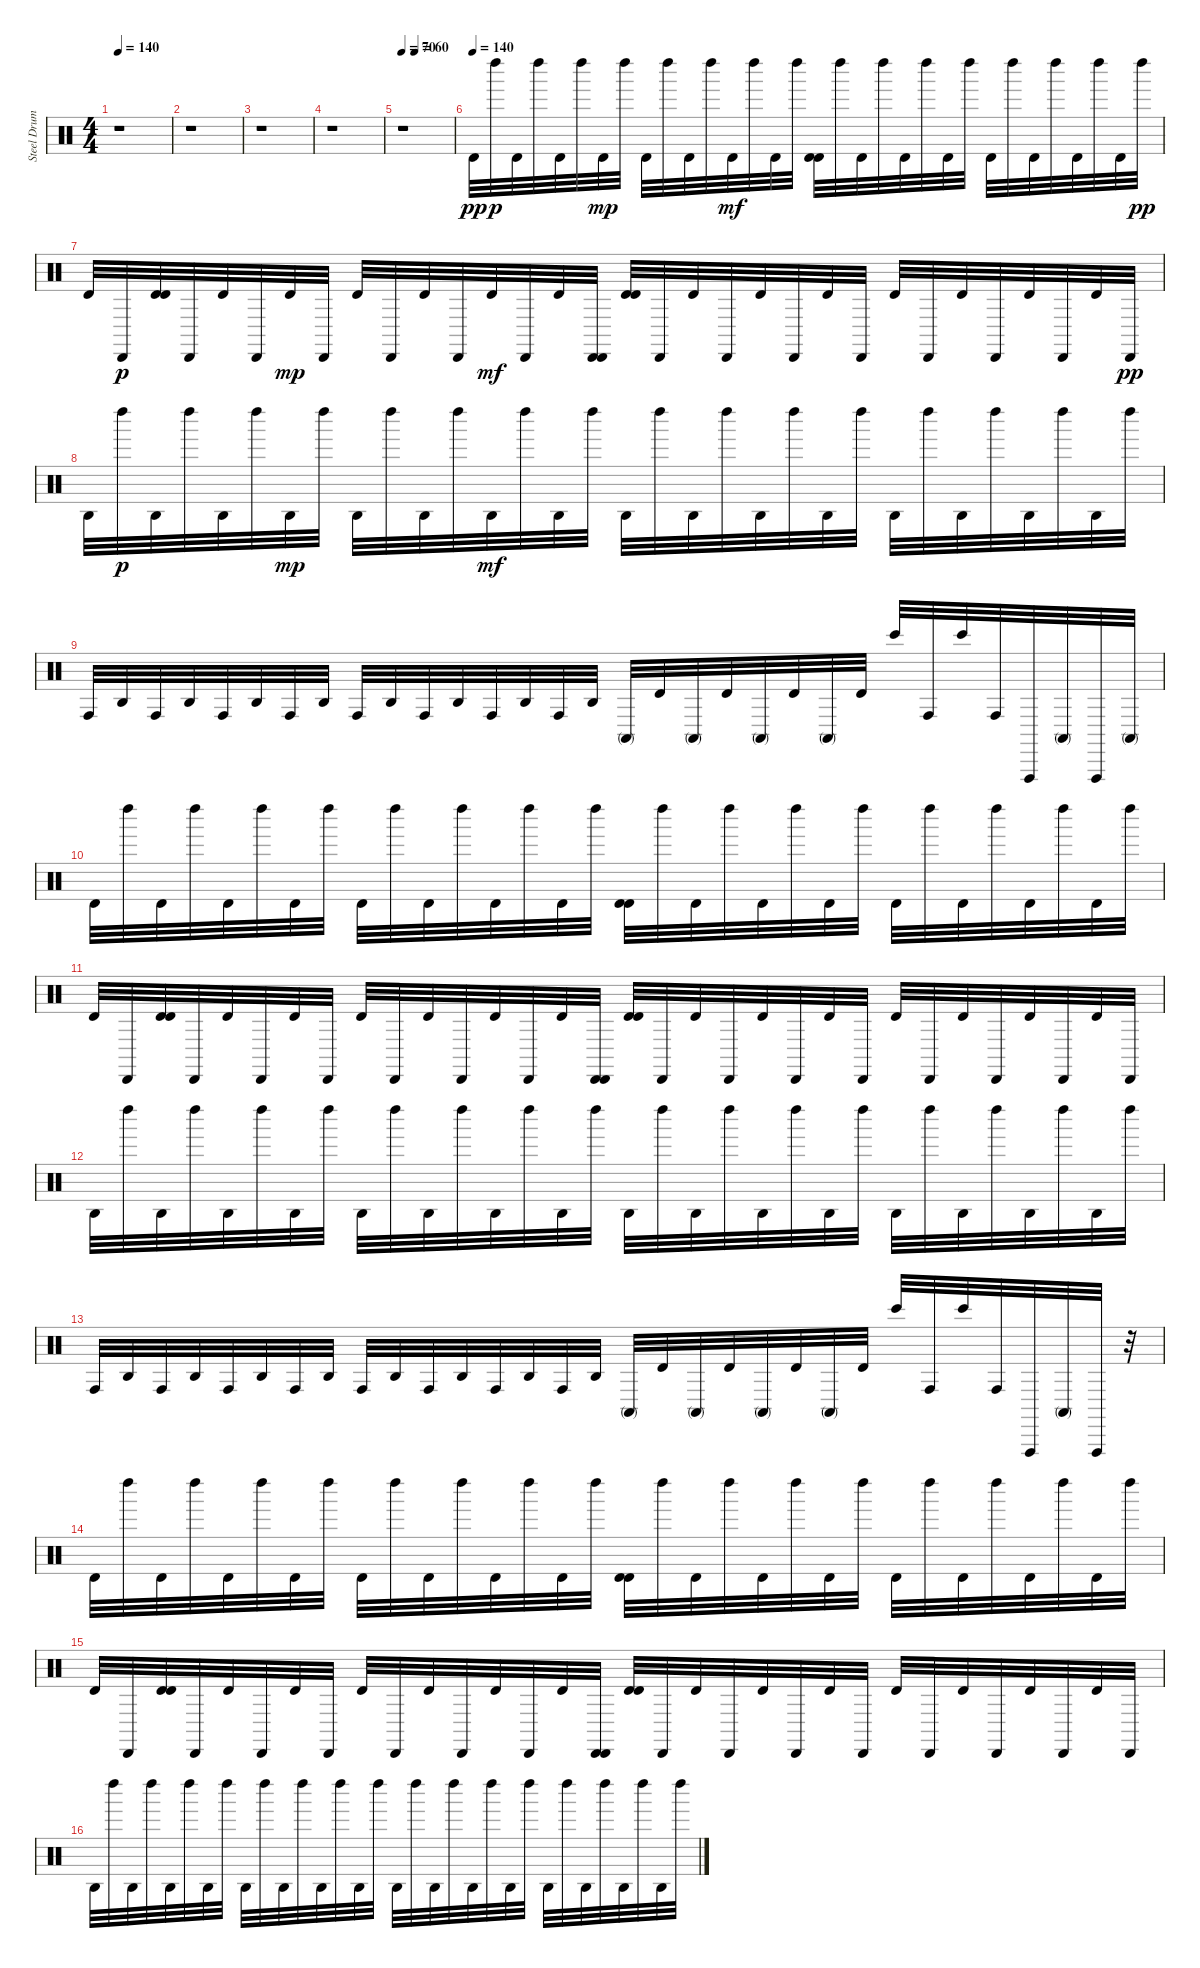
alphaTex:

\track ("Steel Drums" "Steel Drum") {instrument percussion}
\staff {score}
\articulation defaults
\ts (4 4)
\tempo 140
\clef neutral
\ks c
r.1{dy mf} |
r.1 |
r.1 |
r.1 |
\tempo 70
\tempo (60 0.25)
r.1 |
\tempo (140)
"Timbale high (hit)".32{dy pp} "Left Maraca (hit)".32{dy p} "Timbale high (hit)".32 "Left Maraca (hit)".32 "Timbale high (hit)".32 "Left Maraca (hit)".32 "Timbale high (hit)".32{dy mp} "Left Maraca (hit)".32 "Timbale high (hit)".32 "Left Maraca (hit)".32 "Timbale high (hit)".32 "Left Maraca (hit)".32 "Timbale high (hit)".32{dy mf} "Left Maraca (hit)".32 "Timbale high (hit)".32 "Left Maraca (hit)".32 ("Timbale high (hit)" "Timbale high (hit)").32 "Left Maraca (hit)".32 "Timbale high (hit)".32 "Left Maraca (hit)".32 "Timbale high (hit)".32 "Left Maraca (hit)".32 "Timbale high (hit)".32 "Left Maraca (hit)".32 "Timbale high (hit)".32 "Left Maraca (hit)".32 "Timbale high (hit)".32 "Left Maraca (hit)".32 "Timbale high (hit)".32 "Left Maraca (hit)".32 "Timbale high (hit)".32 "Left Maraca (hit)".32{dy pp} |
"Timbale high (hit)".32 "Cabasa (hit)".32{dy p} ("Timbale high (hit)" "Timbale high (hit)").32 "Cabasa (hit)".32 "Timbale high (hit)".32 "Cabasa (hit)".32 "Timbale high (hit)".32{dy mp} "Cabasa (hit)".32 "Timbale high (hit)".32 "Cabasa (hit)".32 "Timbale high (hit)".32 "Cabasa (hit)".32 "Timbale high (hit)".32{dy mf} "Cabasa (hit)".32 "Timbale high (hit)".32 ("Cabasa (hit)" "Cabasa (hit)").32 ("Timbale high (hit)" "Timbale high (hit)").32 "Cabasa (hit)".32 "Timbale high (hit)".32 "Cabasa (hit)".32 "Timbale high (hit)".32 "Cabasa (hit)".32 "Timbale high (hit)".32 "Cabasa (hit)".32 "Timbale high (hit)".32 "Cabasa (hit)".32 "Timbale high (hit)".32 "Cabasa (hit)".32 "Timbale high (hit)".32 "Cabasa (hit)".32 "Timbale high (hit)".32 "Cabasa (hit)".32{dy pp} |
"Agogo high (hit)".32 "Left Maraca (hit)".32{dy p} "Agogo high (hit)".32 "Left Maraca (hit)".32 "Agogo high (hit)".32 "Left Maraca (hit)".32 "Agogo high (hit)".32{dy mp} "Left Maraca (hit)".32 "Agogo high (hit)".32 "Left Maraca (hit)".32 "Agogo high (hit)".32 "Left Maraca (hit)".32 "Agogo high (hit)".32{dy mf} "Left Maraca (hit)".32 "Agogo high (hit)".32 "Left Maraca (hit)".32 "Agogo high (hit)".32 "Left Maraca (hit)".32 "Agogo high (hit)".32 "Left Maraca (hit)".32 "Agogo high (hit)".32 "Left Maraca (hit)".32 "Agogo high (hit)".32 "Left Maraca (hit)".32 "Agogo high (hit)".32 "Left Maraca (hit)".32 "Agogo high (hit)".32 "Left Maraca (hit)".32 "Agogo high (hit)".32 "Left Maraca (hit)".32 "Agogo high (hit)".32 "Left Maraca (hit)".32 |
"Conga high (hit)".32 "Agogo high (hit)".32 "Conga high (hit)".32 "Agogo high (hit)".32 "Conga high (hit)".32 "Agogo high (hit)".32 "Conga high (hit)".32 "Agogo high (hit)".32 "Conga high (hit)".32 "Agogo high (hit)".32 "Conga high (hit)".32 "Agogo high (hit)".32 "Conga high (hit)".32 "Agogo high (hit)".32 "Conga high (hit)".32 "Agogo high (hit)".32 "Conga high (mute)".32 "Timbale high (hit)".32 "Conga high (mute)".32 "Timbale high (hit)".32 "Conga high (mute)".32 "Timbale high (hit)".32 "Conga high (mute)".32 "Timbale high (hit)".32 "Bongo High (hit)".32 "Conga high (hit)".32 "Bongo High (hit)".32 "Conga high (hit)".32 "Vibraslap (hit)".32 "Conga high (mute)".32 "Vibraslap (hit)".32 "Conga high (mute)".32 |
"Timbale high (hit)".32 "Left Maraca (hit)".32 "Timbale high (hit)".32 "Left Maraca (hit)".32 "Timbale high (hit)".32 "Left Maraca (hit)".32 "Timbale high (hit)".32 "Left Maraca (hit)".32 "Timbale high (hit)".32 "Left Maraca (hit)".32 "Timbale high (hit)".32 "Left Maraca (hit)".32 "Timbale high (hit)".32 "Left Maraca (hit)".32 "Timbale high (hit)".32 "Left Maraca (hit)".32 ("Timbale high (hit)" "Timbale high (hit)").32 "Left Maraca (hit)".32 "Timbale high (hit)".32 "Left Maraca (hit)".32 "Timbale high (hit)".32 "Left Maraca (hit)".32 "Timbale high (hit)".32 "Left Maraca (hit)".32 "Timbale high (hit)".32 "Left Maraca (hit)".32 "Timbale high (hit)".32 "Left Maraca (hit)".32 "Timbale high (hit)".32 "Left Maraca (hit)".32 "Timbale high (hit)".32 "Left Maraca (hit)".32 |
"Timbale high (hit)".32 "Cabasa (hit)".32 ("Timbale high (hit)" "Timbale high (hit)").32 "Cabasa (hit)".32 "Timbale high (hit)".32 "Cabasa (hit)".32 "Timbale high (hit)".32 "Cabasa (hit)".32 "Timbale high (hit)".32 "Cabasa (hit)".32 "Timbale high (hit)".32 "Cabasa (hit)".32 "Timbale high (hit)".32 "Cabasa (hit)".32 "Timbale high (hit)".32 ("Cabasa (hit)" "Cabasa (hit)").32 ("Timbale high (hit)" "Timbale high (hit)").32 "Cabasa (hit)".32 "Timbale high (hit)".32 "Cabasa (hit)".32 "Timbale high (hit)".32 "Cabasa (hit)".32 "Timbale high (hit)".32 "Cabasa (hit)".32 "Timbale high (hit)".32 "Cabasa (hit)".32 "Timbale high (hit)".32 "Cabasa (hit)".32 "Timbale high (hit)".32 "Cabasa (hit)".32 "Timbale high (hit)".32 "Cabasa (hit)".32 |
"Agogo high (hit)".32 "Left Maraca (hit)".32 "Agogo high (hit)".32 "Left Maraca (hit)".32 "Agogo high (hit)".32 "Left Maraca (hit)".32 "Agogo high (hit)".32 "Left Maraca (hit)".32 "Agogo high (hit)".32 "Left Maraca (hit)".32 "Agogo high (hit)".32 "Left Maraca (hit)".32 "Agogo high (hit)".32 "Left Maraca (hit)".32 "Agogo high (hit)".32 "Left Maraca (hit)".32 "Agogo high (hit)".32 "Left Maraca (hit)".32 "Agogo high (hit)".32 "Left Maraca (hit)".32 "Agogo high (hit)".32 "Left Maraca (hit)".32 "Agogo high (hit)".32 "Left Maraca (hit)".32 "Agogo high (hit)".32 "Left Maraca (hit)".32 "Agogo high (hit)".32 "Left Maraca (hit)".32 "Agogo high (hit)".32 "Left Maraca (hit)".32 "Agogo high (hit)".32 "Left Maraca (hit)".32 |
"Conga high (hit)".32 "Agogo high (hit)".32 "Conga high (hit)".32 "Agogo high (hit)".32 "Conga high (hit)".32 "Agogo high (hit)".32 "Conga high (hit)".32 "Agogo high (hit)".32 "Conga high (hit)".32 "Agogo high (hit)".32 "Conga high (hit)".32 "Agogo high (hit)".32 "Conga high (hit)".32 "Agogo high (hit)".32 "Conga high (hit)".32 "Agogo high (hit)".32 "Conga high (mute)".32 "Timbale high (hit)".32 "Conga high (mute)".32 "Timbale high (hit)".32 "Conga high (mute)".32 "Timbale high (hit)".32 "Conga high (mute)".32 "Timbale high (hit)".32 "Bongo High (hit)".32 "Conga high (hit)".32 "Bongo High (hit)".32 "Conga high (hit)".32 "Vibraslap (hit)".32 "Conga high (mute)".32 "Vibraslap (hit)".32 r.32 |
"Timbale high (hit)".32 "Left Maraca (hit)".32 "Timbale high (hit)".32 "Left Maraca (hit)".32 "Timbale high (hit)".32 "Left Maraca (hit)".32 "Timbale high (hit)".32 "Left Maraca (hit)".32 "Timbale high (hit)".32 "Left Maraca (hit)".32 "Timbale high (hit)".32 "Left Maraca (hit)".32 "Timbale high (hit)".32 "Left Maraca (hit)".32 "Timbale high (hit)".32 "Left Maraca (hit)".32 ("Timbale high (hit)" "Timbale high (hit)").32 "Left Maraca (hit)".32 "Timbale high (hit)".32 "Left Maraca (hit)".32 "Timbale high (hit)".32 "Left Maraca (hit)".32 "Timbale high (hit)".32 "Left Maraca (hit)".32 "Timbale high (hit)".32 "Left Maraca (hit)".32 "Timbale high (hit)".32 "Left Maraca (hit)".32 "Timbale high (hit)".32 "Left Maraca (hit)".32 "Timbale high (hit)".32 "Left Maraca (hit)".32 |
"Timbale high (hit)".32 "Cabasa (hit)".32 ("Timbale high (hit)" "Timbale high (hit)").32 "Cabasa (hit)".32 "Timbale high (hit)".32 "Cabasa (hit)".32 "Timbale high (hit)".32 "Cabasa (hit)".32 "Timbale high (hit)".32 "Cabasa (hit)".32 "Timbale high (hit)".32 "Cabasa (hit)".32 "Timbale high (hit)".32 "Cabasa (hit)".32 "Timbale high (hit)".32 ("Cabasa (hit)" "Cabasa (hit)").32 ("Timbale high (hit)" "Timbale high (hit)").32 "Cabasa (hit)".32 "Timbale high (hit)".32 "Cabasa (hit)".32 "Timbale high (hit)".32 "Cabasa (hit)".32 "Timbale high (hit)".32 "Cabasa (hit)".32 "Timbale high (hit)".32 "Cabasa (hit)".32 "Timbale high (hit)".32 "Cabasa (hit)".32 "Timbale high (hit)".32 "Cabasa (hit)".32 "Timbale high (hit)".32 "Cabasa (hit)".32 |
"Agogo high (hit)".32 "Left Maraca (hit)".32 "Agogo high (hit)".32 "Left Maraca (hit)".32 "Agogo high (hit)".32 "Left Maraca (hit)".32 "Agogo high (hit)".32 "Left Maraca (hit)".32 "Agogo high (hit)".32 "Left Maraca (hit)".32 "Agogo high (hit)".32 "Left Maraca (hit)".32 "Agogo high (hit)".32 "Left Maraca (hit)".32 "Agogo high (hit)".32 "Left Maraca (hit)".32 "Agogo high (hit)".32 "Left Maraca (hit)".32 "Agogo high (hit)".32 "Left Maraca (hit)".32 "Agogo high (hit)".32 "Left Maraca (hit)".32 "Agogo high (hit)".32 "Left Maraca (hit)".32 "Agogo high (hit)".32 "Left Maraca (hit)".32 "Agogo high (hit)".32 "Left Maraca (hit)".32 "Agogo high (hit)".32 "Left Maraca (hit)".32 "Agogo high (hit)".32 "Left Maraca (hit)".32
